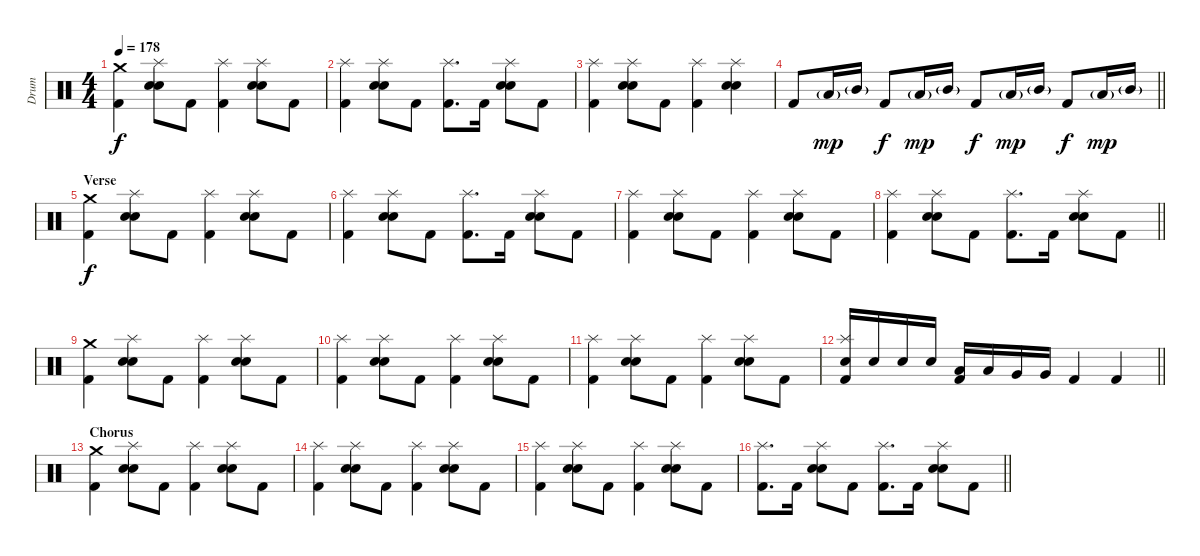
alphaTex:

\track ("Drum" "Drum") {instrument percussion}
\staff {score}
\articulation defaults
\ts (4 4)
\tempo 178
\clef neutral
\ks c
("Crash medium (hit)" "Kick (hit) 2").4{dy f} ("Splash (hit)" "Electric Snare (hit)" "Snare (hit) 2").8 "Kick (hit) 2".8 ("Splash (hit)" "Kick (hit) 2").4 ("Splash (hit)" "Electric Snare (hit)" "Snare (hit) 2").8 "Kick (hit) 2".8 |
("Splash (hit)" "Kick (hit) 2").4 ("Splash (hit)" "Electric Snare (hit)" "Snare (hit) 2").8 "Kick (hit) 2".8 ("Splash (hit)" "Kick (hit) 2").8{d} "Kick (hit) 2".16 ("Splash (hit)" "Electric Snare (hit)" "Snare (hit) 2").8 "Kick (hit) 2".8 |
("Splash (hit)" "Kick (hit) 2").4 ("Splash (hit)" "Electric Snare (hit)" "Snare (hit) 2").8 "Kick (hit) 2".8 ("Splash (hit)" "Kick (hit) 2").4 ("Splash (hit)" "Electric Snare (hit)" "Snare (hit) 2").4 |
\barLineRight lightlight "Kick (hit) 2".8 "Low Tom (hit)"{g}.16{dy mp} "Mid Tom (hit)"{g}.16 "Kick (hit) 2".8{dy f} "Low Tom (hit)"{g}.16{dy mp} "Mid Tom (hit)"{g}.16 "Kick (hit) 2".8{dy f} "Low Tom (hit)"{g}.16{dy mp} "Mid Tom (hit)"{g}.16 "Kick (hit) 2".8{dy f} "Low Tom (hit)"{g}.16{dy mp} "Mid Tom (hit)"{g}.16
|
\section ("" "Verse")
("Crash medium (hit)" "Kick (hit) 2").4{dy f} ("Splash (hit)" "Electric Snare (hit)" "Snare (hit) 2").8 "Kick (hit) 2".8 ("Splash (hit)" "Kick (hit) 2").4 ("Splash (hit)" "Electric Snare (hit)" "Snare (hit) 2").8 "Kick (hit) 2".8 |
("Splash (hit)" "Kick (hit) 2").4 ("Splash (hit)" "Electric Snare (hit)" "Snare (hit) 2").8 "Kick (hit) 2".8 ("Splash (hit)" "Kick (hit) 2").8{d} "Kick (hit) 2".16 ("Splash (hit)" "Electric Snare (hit)" "Snare (hit) 2").8 "Kick (hit) 2".8 |
("Splash (hit)" "Kick (hit) 2").4 ("Splash (hit)" "Electric Snare (hit)" "Snare (hit) 2").8 "Kick (hit) 2".8 ("Splash (hit)" "Kick (hit) 2").4 ("Splash (hit)" "Electric Snare (hit)" "Snare (hit) 2").8 "Kick (hit) 2".8 |
\barLineRight lightlight
("Splash (hit)" "Kick (hit) 2").4 ("Splash (hit)" "Electric Snare (hit)" "Snare (hit) 2").8 "Kick (hit) 2".8 ("Splash (hit)" "Kick (hit) 2").8{d} "Kick (hit) 2".16 ("Splash (hit)" "Electric Snare (hit)" "Snare (hit) 2").8 "Kick (hit) 2".8 |
("Crash medium (hit)" "Kick (hit) 2").4 ("Splash (hit)" "Electric Snare (hit)" "Snare (hit) 2").8 "Kick (hit) 2".8 ("Splash (hit)" "Kick (hit) 2").4 ("Splash (hit)" "Electric Snare (hit)" "Snare (hit) 2").8 "Kick (hit) 2".8 |
("Splash (hit)" "Kick (hit) 2").4 ("Splash (hit)" "Electric Snare (hit)" "Snare (hit) 2").8 "Kick (hit) 2".8 ("Splash (hit)" "Kick (hit) 2").4 ("Splash (hit)" "Electric Snare (hit)" "Snare (hit) 2").8 "Kick (hit) 2".8 |
("Splash (hit)" "Kick (hit) 2").4 ("Splash (hit)" "Electric Snare (hit)" "Snare (hit) 2").8 "Kick (hit) 2".8 ("Splash (hit)" "Kick (hit) 2").4 ("Splash (hit)" "Electric Snare (hit)" "Snare (hit) 2").8 "Kick (hit) 2".8 |
\barLineRight lightlight
("Splash (hit)" "Electric Snare (hit)" "Kick (hit) 2").16 "Electric Snare (hit)".16 "Electric Snare (hit)".16 "Electric Snare (hit)".16 ("Low Tom (hit)" "Kick (hit) 2").16 "Low Tom (hit)".16 "Very Low Tom (hit)".16 "Very Low Tom (hit)".16 "Kick (hit) 2".4 "Kick (hit) 2".4 |
\section ("" "Chorus")
("Crash medium (hit)" "Kick (hit) 2").4 ("Splash (hit)" "Electric Snare (hit)" "Snare (hit) 2").8 "Kick (hit) 2".8 ("Splash (hit)" "Kick (hit) 2").4 ("Splash (hit)" "Electric Snare (hit)" "Snare (hit) 2").8 "Kick (hit) 2".8 |
("Splash (hit)" "Kick (hit) 2").4 ("Splash (hit)" "Electric Snare (hit)" "Snare (hit) 2").8 "Kick (hit) 2".8 ("Splash (hit)" "Kick (hit) 2").4 ("Splash (hit)" "Electric Snare (hit)" "Snare (hit) 2").8 "Kick (hit) 2".8 |
("Splash (hit)" "Kick (hit) 2").4 ("Splash (hit)" "Electric Snare (hit)" "Snare (hit) 2").8 "Kick (hit) 2".8 ("Splash (hit)" "Kick (hit) 2").4 ("Splash (hit)" "Electric Snare (hit)" "Snare (hit) 2").8 "Kick (hit) 2".8 |
\barLineRight lightlight
("Splash (hit)" "Kick (hit) 2").8{d} "Kick (hit) 2".16 ("Splash (hit)" "Electric Snare (hit)" "Snare (hit) 2").8 "Kick (hit) 2".8 ("Splash (hit)" "Kick (hit) 2").8{d} "Kick (hit) 2".16 ("Splash (hit)" "Electric Snare (hit)" "Snare (hit) 2").8 "Kick (hit) 2".8
